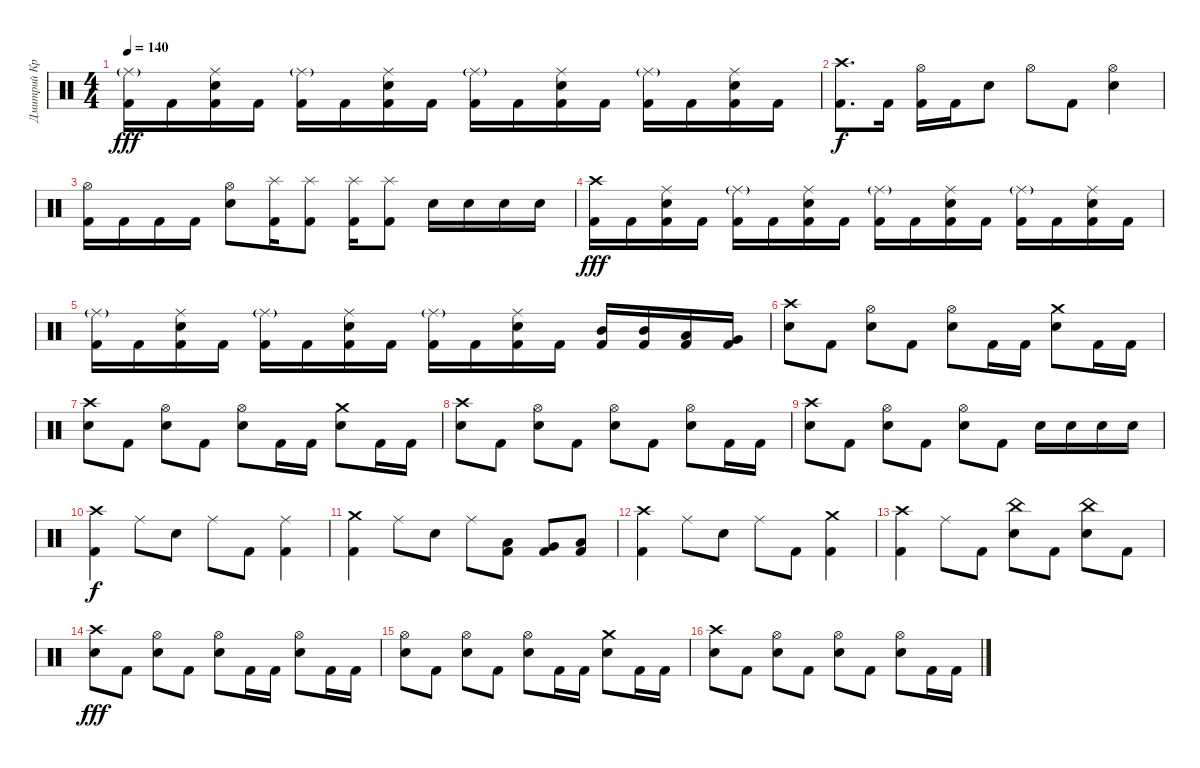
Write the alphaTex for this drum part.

\track ("Дмитрий Кривенков" "Дмитрий Кр") {instrument percussion}
\staff {score}
\articulation defaults
\ts (4 4)
\tempo 140
\clef neutral
\ks c
("Ride (middle)"{g} "Kick (hit) 2").16{dy fff} "Kick (hit) 2".16 ("Ride (middle)" "Electric Snare (hit)" "Kick (hit) 2").16 "Kick (hit) 2".16 ("Ride (middle)"{g} "Kick (hit) 2").16 "Kick (hit) 2".16 ("Ride (middle)" "Electric Snare (hit)" "Kick (hit) 2").16 "Kick (hit) 2".16 ("Ride (middle)"{g} "Kick (hit) 2").16 "Kick (hit) 2".16 ("Ride (middle)" "Electric Snare (hit)" "Kick (hit) 2").16 "Kick (hit) 2".16 ("Ride (middle)"{g} "Kick (hit) 2").16 "Kick (hit) 2".16 ("Ride (middle)" "Electric Snare (hit)" "Kick (hit) 2").16 "Kick (hit) 2".16 |
("Crash high (hit)" "Kick (hit) 2").8{d dy f} "Kick (hit) 2".16 ("Hi-Hat (open)" "Kick (hit) 2").16 "Kick (hit) 2".16 "Electric Snare (hit)".8 "Hi-Hat (open)".8 "Kick (hit) 2".8 ("Hi-Hat (open)" "Electric Snare (hit)").4 |
("Hi-Hat (open)" "Kick (hit) 2").16 "Kick (hit) 2".16 "Kick (hit) 2".16 "Kick (hit) 2".16 ("Hi-Hat (open)" "Electric Snare (hit)").8 ("Splash (hit)" "Kick (hit) 2").16 ("Splash (hit)" "Kick (hit) 2").8 ("Splash (hit)" "Kick (hit) 2").16 ("Splash (hit)" "Kick (hit) 2").8 "Electric Snare (hit)".16 "Electric Snare (hit)".16 "Electric Snare (hit)".16 "Electric Snare (hit)".16 |
("Crash high (hit)" "Kick (hit) 2").16{dy fff} "Kick (hit) 2".16 ("Ride (middle)" "Electric Snare (hit)" "Kick (hit) 2").16 "Kick (hit) 2".16 ("Ride (middle)"{g} "Kick (hit) 2").16 "Kick (hit) 2".16 ("Ride (middle)" "Electric Snare (hit)" "Kick (hit) 2").16 "Kick (hit) 2".16 ("Ride (middle)"{g} "Kick (hit) 2").16 "Kick (hit) 2".16 ("Ride (middle)" "Electric Snare (hit)" "Kick (hit) 2").16 "Kick (hit) 2".16 ("Ride (middle)"{g} "Kick (hit) 2").16 "Kick (hit) 2".16 ("Ride (middle)" "Electric Snare (hit)" "Kick (hit) 2").16 "Kick (hit) 2".16 |
("Ride (middle)"{g} "Kick (hit) 2").16 "Kick (hit) 2".16 ("Ride (middle)" "Electric Snare (hit)" "Kick (hit) 2").16 "Kick (hit) 2".16 ("Ride (middle)"{g} "Kick (hit) 2").16 "Kick (hit) 2".16 ("Ride (middle)" "Electric Snare (hit)" "Kick (hit) 2").16 "Kick (hit) 2".16 ("Ride (middle)"{g} "Kick (hit) 2").16 "Kick (hit) 2".16 ("Ride (middle)" "Electric Snare (hit)" "Kick (hit) 2").16 "Kick (hit) 2".16 ("Mid Tom (hit)" "Kick (hit) 2").16 ("Mid Tom (hit)" "Kick (hit) 2").16 ("Low Tom (hit)" "Kick (hit) 2").16 ("Very Low Tom (hit)" "Kick (hit) 2").16 |
("Crash high (hit)" "Electric Snare (hit)").8 "Kick (hit) 2".8 ("Hi-Hat (open)" "Electric Snare (hit)").8 "Kick (hit) 2".8 ("Hi-Hat (open)" "Electric Snare (hit)").8 "Kick (hit) 2".16 "Kick (hit) 2".16 ("Crash medium (hit)" "Electric Snare (hit)").8 "Kick (hit) 2".16 "Kick (hit) 2".16 |
("Crash high (hit)" "Electric Snare (hit)").8 "Kick (hit) 2".8 ("Hi-Hat (open)" "Electric Snare (hit)").8 "Kick (hit) 2".8 ("Hi-Hat (open)" "Electric Snare (hit)").8 "Kick (hit) 2".16 "Kick (hit) 2".16 ("Crash medium (hit)" "Electric Snare (hit)").8 "Kick (hit) 2".16 "Kick (hit) 2".16 |
("Crash high (hit)" "Electric Snare (hit)").8 "Kick (hit) 2".8 ("Hi-Hat (open)" "Electric Snare (hit)").8 "Kick (hit) 2".8 ("Hi-Hat (open)" "Electric Snare (hit)").8 "Kick (hit) 2".8 ("Hi-Hat (open)" "Electric Snare (hit)").8 "Kick (hit) 2".16 "Kick (hit) 2".16 |
("Crash high (hit)" "Electric Snare (hit)").8 "Kick (hit) 2".8 ("Hi-Hat (open)" "Electric Snare (hit)").8 "Kick (hit) 2".8 ("Hi-Hat (open)" "Electric Snare (hit)").8 "Kick (hit) 2".8 "Electric Snare (hit)".16 "Electric Snare (hit)".16 "Electric Snare (hit)".16 "Electric Snare (hit)".16 |
("Crash high (hit)" "Kick (hit) 2").4{dy f} "Ride (middle)".8 "Electric Snare (hit)".8 "Ride (middle)".8 "Kick (hit) 2".8 ("Ride (middle)" "Kick (hit) 2").4 |
("Crash medium (hit)" "Kick (hit) 2").4 "Ride (middle)".8 "Electric Snare (hit)".8 "Ride (middle)".8 ("Low Floor Tom (hit)" "Kick (hit) 2").8 ("Very Low Tom (hit)" "Kick (hit) 2").8 ("Low Floor Tom (hit)" "Kick (hit) 2").8 |
("Crash high (hit)" "Kick (hit) 2").4 "Ride (middle)".8 "Electric Snare (hit)".8 "Ride (middle)".8 "Kick (hit) 2".8 ("Crash medium (hit)" "Kick (hit) 2").4 |
("Crash high (hit)" "Kick (hit) 2").4 "Ride (middle)".8 "Kick (hit) 2".8 ("China (hit)" "Electric Snare (hit)").8 "Kick (hit) 2".8 ("China (hit)" "Electric Snare (hit)").8 "Kick (hit) 2".8 |
("Crash high (hit)" "Electric Snare (hit)").8{dy fff} "Kick (hit) 2".8 ("Hi-Hat (open)" "Electric Snare (hit)").8 "Kick (hit) 2".8 ("Hi-Hat (open)" "Electric Snare (hit)").8 "Kick (hit) 2".16 "Kick (hit) 2".16 ("Hi-Hat (open)" "Electric Snare (hit)").8 "Kick (hit) 2".16 "Kick (hit) 2".16 |
("Hi-Hat (open)" "Electric Snare (hit)").8 "Kick (hit) 2".8 ("Hi-Hat (open)" "Electric Snare (hit)").8 "Kick (hit) 2".8 ("Hi-Hat (open)" "Electric Snare (hit)").8 "Kick (hit) 2".16 "Kick (hit) 2".16 ("Crash medium (hit)" "Electric Snare (hit)").8 "Kick (hit) 2".16 "Kick (hit) 2".16 |
("Crash high (hit)" "Electric Snare (hit)").8 "Kick (hit) 2".8 ("Hi-Hat (open)" "Electric Snare (hit)").8 "Kick (hit) 2".8 ("Hi-Hat (open)" "Electric Snare (hit)").8 "Kick (hit) 2".8 ("Hi-Hat (open)" "Electric Snare (hit)").8 "Kick (hit) 2".16 "Kick (hit) 2".16
